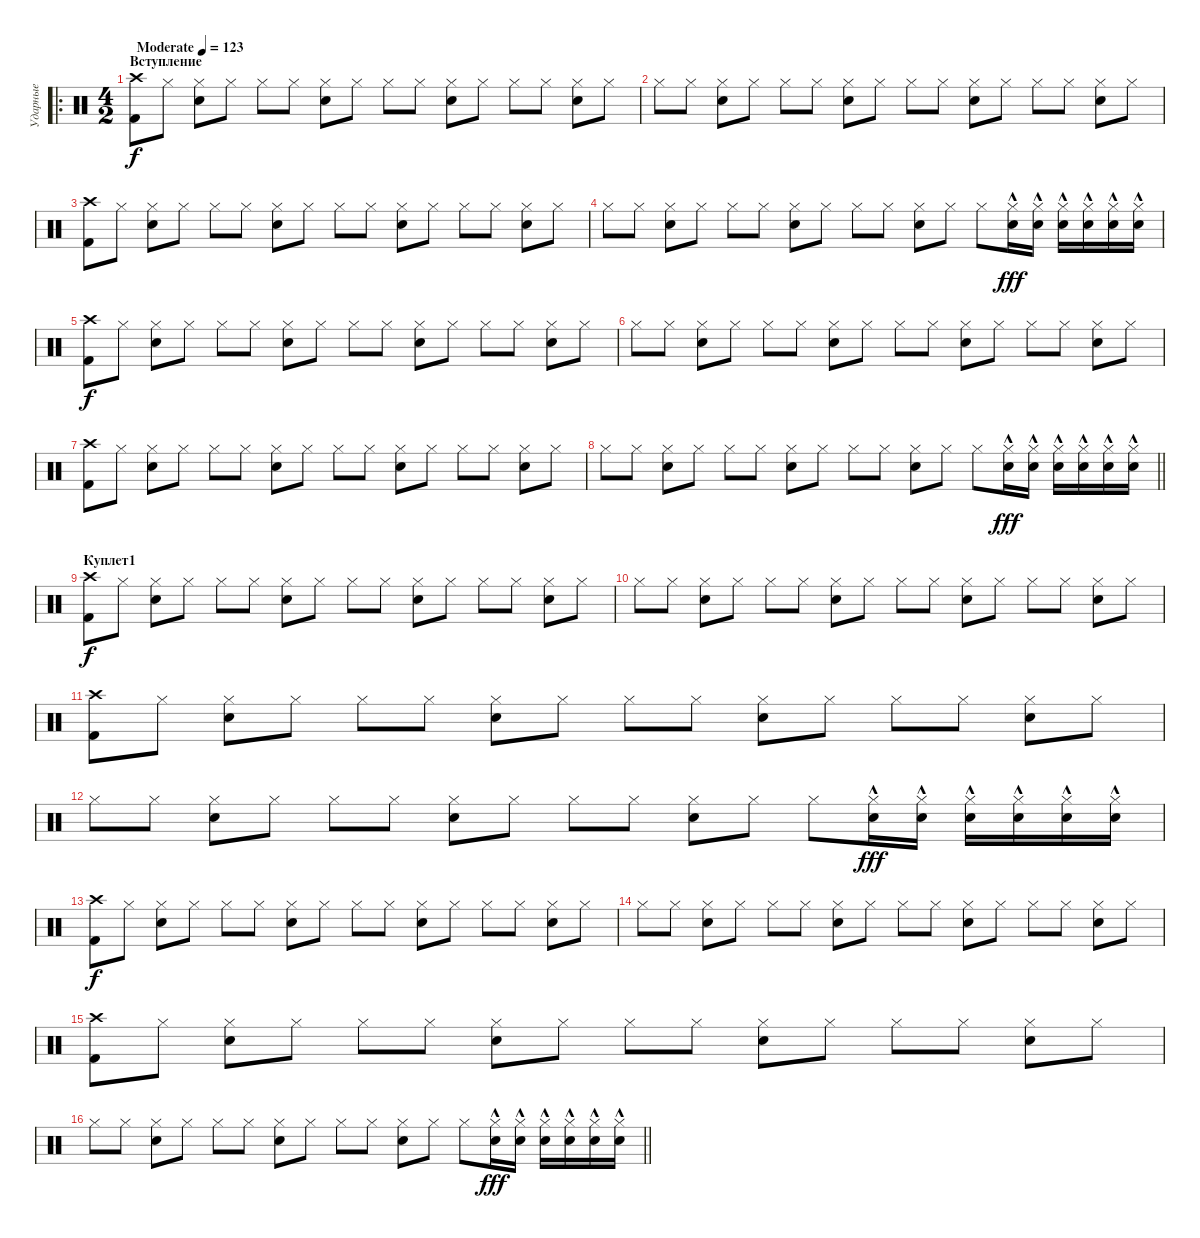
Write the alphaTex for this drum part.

\track ("Ударные" "Ударные") {instrument percussion}
\staff {score}
\articulation defaults
\ro
\ts (4 2)
\section ("" "Вступление")
\tempo (123 "Moderate")
\clef neutral
\ks c
("Crash high (hit)" "Kick (hit) 2").8{dy f} "Hi-Hat (closed)".8 ("Hi-Hat (closed)" "Electric Snare (hit)").8 "Hi-Hat (closed)".8 "Hi-Hat (closed)".8 "Hi-Hat (closed)".8 ("Hi-Hat (closed)" "Electric Snare (hit)").8 "Hi-Hat (closed)".8 "Hi-Hat (closed)".8 "Hi-Hat (closed)".8 ("Hi-Hat (closed)" "Electric Snare (hit)").8 "Hi-Hat (closed)".8 "Hi-Hat (closed)".8 "Hi-Hat (closed)".8 ("Hi-Hat (closed)" "Electric Snare (hit)").8 "Hi-Hat (closed)".8 |
"Hi-Hat (closed)".8 "Hi-Hat (closed)".8 ("Hi-Hat (closed)" "Electric Snare (hit)").8 "Hi-Hat (closed)".8 "Hi-Hat (closed)".8 "Hi-Hat (closed)".8 ("Hi-Hat (closed)" "Electric Snare (hit)").8 "Hi-Hat (closed)".8 "Hi-Hat (closed)".8 "Hi-Hat (closed)".8 ("Hi-Hat (closed)" "Electric Snare (hit)").8 "Hi-Hat (closed)".8 "Hi-Hat (closed)".8 "Hi-Hat (closed)".8 ("Hi-Hat (closed)" "Electric Snare (hit)").8 "Hi-Hat (closed)".8 |
("Crash high (hit)" "Kick (hit) 2").8 "Hi-Hat (closed)".8 ("Hi-Hat (closed)" "Electric Snare (hit)").8 "Hi-Hat (closed)".8 "Hi-Hat (closed)".8 "Hi-Hat (closed)".8 ("Hi-Hat (closed)" "Electric Snare (hit)").8 "Hi-Hat (closed)".8 "Hi-Hat (closed)".8 "Hi-Hat (closed)".8 ("Hi-Hat (closed)" "Electric Snare (hit)").8 "Hi-Hat (closed)".8 "Hi-Hat (closed)".8 "Hi-Hat (closed)".8 ("Hi-Hat (closed)" "Electric Snare (hit)").8 "Hi-Hat (closed)".8 |
"Hi-Hat (closed)".8 "Hi-Hat (closed)".8 ("Hi-Hat (closed)" "Electric Snare (hit)").8 "Hi-Hat (closed)".8 "Hi-Hat (closed)".8 "Hi-Hat (closed)".8 ("Hi-Hat (closed)" "Electric Snare (hit)").8 "Hi-Hat (closed)".8 "Hi-Hat (closed)".8 "Hi-Hat (closed)".8 ("Hi-Hat (closed)" "Electric Snare (hit)").8 "Hi-Hat (closed)".8 "Hi-Hat (closed)".8 ("Hi-Hat (closed)"{hac} "Electric Snare (hit)"{hac}).16{dy fff} ("Hi-Hat (closed)"{hac} "Electric Snare (hit)"{hac}).16 ("Hi-Hat (closed)"{hac} "Electric Snare (hit)"{hac}).16 ("Hi-Hat (closed)"{hac} "Electric Snare (hit)"{hac}).16 ("Hi-Hat (closed)"{hac} "Electric Snare (hit)"{hac}).16 ("Hi-Hat (closed)"{hac} "Electric Snare (hit)"{hac}).16 |
("Crash high (hit)" "Kick (hit) 2").8{dy f} "Hi-Hat (closed)".8 ("Hi-Hat (closed)" "Electric Snare (hit)").8 "Hi-Hat (closed)".8 "Hi-Hat (closed)".8 "Hi-Hat (closed)".8 ("Hi-Hat (closed)" "Electric Snare (hit)").8 "Hi-Hat (closed)".8 "Hi-Hat (closed)".8 "Hi-Hat (closed)".8 ("Hi-Hat (closed)" "Electric Snare (hit)").8 "Hi-Hat (closed)".8 "Hi-Hat (closed)".8 "Hi-Hat (closed)".8 ("Hi-Hat (closed)" "Electric Snare (hit)").8 "Hi-Hat (closed)".8 |
"Hi-Hat (closed)".8 "Hi-Hat (closed)".8 ("Hi-Hat (closed)" "Electric Snare (hit)").8 "Hi-Hat (closed)".8 "Hi-Hat (closed)".8 "Hi-Hat (closed)".8 ("Hi-Hat (closed)" "Electric Snare (hit)").8 "Hi-Hat (closed)".8 "Hi-Hat (closed)".8 "Hi-Hat (closed)".8 ("Hi-Hat (closed)" "Electric Snare (hit)").8 "Hi-Hat (closed)".8 "Hi-Hat (closed)".8 "Hi-Hat (closed)".8 ("Hi-Hat (closed)" "Electric Snare (hit)").8 "Hi-Hat (closed)".8 |
("Crash high (hit)" "Kick (hit) 2").8 "Hi-Hat (closed)".8 ("Hi-Hat (closed)" "Electric Snare (hit)").8 "Hi-Hat (closed)".8 "Hi-Hat (closed)".8 "Hi-Hat (closed)".8 ("Hi-Hat (closed)" "Electric Snare (hit)").8 "Hi-Hat (closed)".8 "Hi-Hat (closed)".8 "Hi-Hat (closed)".8 ("Hi-Hat (closed)" "Electric Snare (hit)").8 "Hi-Hat (closed)".8 "Hi-Hat (closed)".8 "Hi-Hat (closed)".8 ("Hi-Hat (closed)" "Electric Snare (hit)").8 "Hi-Hat (closed)".8 |
\barLineRight lightlight "Hi-Hat (closed)".8 "Hi-Hat (closed)".8
("Hi-Hat (closed)" "Electric Snare (hit)").8 "Hi-Hat (closed)".8 "Hi-Hat (closed)".8 "Hi-Hat (closed)".8 ("Hi-Hat (closed)" "Electric Snare (hit)").8 "Hi-Hat (closed)".8 "Hi-Hat (closed)".8 "Hi-Hat (closed)".8 ("Hi-Hat (closed)" "Electric Snare (hit)").8 "Hi-Hat (closed)".8 "Hi-Hat (closed)".8 ("Hi-Hat (closed)"{hac} "Electric Snare (hit)"{hac}).16{dy fff} ("Hi-Hat (closed)"{hac} "Electric Snare (hit)"{hac}).16 ("Hi-Hat (closed)"{hac} "Electric Snare (hit)"{hac}).16 ("Hi-Hat (closed)"{hac} "Electric Snare (hit)"{hac}).16 ("Hi-Hat (closed)"{hac} "Electric Snare (hit)"{hac}).16 ("Hi-Hat (closed)"{hac} "Electric Snare (hit)"{hac}).16 |
\section ("" "Куплет1")
("Crash high (hit)" "Kick (hit) 2").8{dy f} "Hi-Hat (closed)".8 ("Hi-Hat (closed)" "Electric Snare (hit)").8 "Hi-Hat (closed)".8 "Hi-Hat (closed)".8 "Hi-Hat (closed)".8 ("Hi-Hat (closed)" "Electric Snare (hit)").8 "Hi-Hat (closed)".8 "Hi-Hat (closed)".8 "Hi-Hat (closed)".8 ("Hi-Hat (closed)" "Electric Snare (hit)").8 "Hi-Hat (closed)".8 "Hi-Hat (closed)".8 "Hi-Hat (closed)".8 ("Hi-Hat (closed)" "Electric Snare (hit)").8 "Hi-Hat (closed)".8 |
"Hi-Hat (closed)".8 "Hi-Hat (closed)".8 ("Hi-Hat (closed)" "Electric Snare (hit)").8 "Hi-Hat (closed)".8 "Hi-Hat (closed)".8 "Hi-Hat (closed)".8 ("Hi-Hat (closed)" "Electric Snare (hit)").8 "Hi-Hat (closed)".8 "Hi-Hat (closed)".8 "Hi-Hat (closed)".8 ("Hi-Hat (closed)" "Electric Snare (hit)").8 "Hi-Hat (closed)".8 "Hi-Hat (closed)".8 "Hi-Hat (closed)".8 ("Hi-Hat (closed)" "Electric Snare (hit)").8 "Hi-Hat (closed)".8 |
("Crash high (hit)" "Kick (hit) 2").8 "Hi-Hat (closed)".8 ("Hi-Hat (closed)" "Electric Snare (hit)").8 "Hi-Hat (closed)".8 "Hi-Hat (closed)".8 "Hi-Hat (closed)".8 ("Hi-Hat (closed)" "Electric Snare (hit)").8 "Hi-Hat (closed)".8 "Hi-Hat (closed)".8 "Hi-Hat (closed)".8 ("Hi-Hat (closed)" "Electric Snare (hit)").8 "Hi-Hat (closed)".8 "Hi-Hat (closed)".8 "Hi-Hat (closed)".8 ("Hi-Hat (closed)" "Electric Snare (hit)").8 "Hi-Hat (closed)".8 |
"Hi-Hat (closed)".8 "Hi-Hat (closed)".8 ("Hi-Hat (closed)" "Electric Snare (hit)").8 "Hi-Hat (closed)".8 "Hi-Hat (closed)".8 "Hi-Hat (closed)".8 ("Hi-Hat (closed)" "Electric Snare (hit)").8 "Hi-Hat (closed)".8 "Hi-Hat (closed)".8 "Hi-Hat (closed)".8 ("Hi-Hat (closed)" "Electric Snare (hit)").8 "Hi-Hat (closed)".8 "Hi-Hat (closed)".8 ("Hi-Hat (closed)"{hac} "Electric Snare (hit)"{hac}).16{dy fff} ("Hi-Hat (closed)"{hac} "Electric Snare (hit)"{hac}).16 ("Hi-Hat (closed)"{hac} "Electric Snare (hit)"{hac}).16 ("Hi-Hat (closed)"{hac} "Electric Snare (hit)"{hac}).16 ("Hi-Hat (closed)"{hac} "Electric Snare (hit)"{hac}).16 ("Hi-Hat (closed)"{hac} "Electric Snare (hit)"{hac}).16 |
("Crash high (hit)" "Kick (hit) 2").8{dy f} "Hi-Hat (closed)".8 ("Hi-Hat (closed)" "Electric Snare (hit)").8 "Hi-Hat (closed)".8 "Hi-Hat (closed)".8 "Hi-Hat (closed)".8 ("Hi-Hat (closed)" "Electric Snare (hit)").8 "Hi-Hat (closed)".8 "Hi-Hat (closed)".8 "Hi-Hat (closed)".8 ("Hi-Hat (closed)" "Electric Snare (hit)").8 "Hi-Hat (closed)".8 "Hi-Hat (closed)".8 "Hi-Hat (closed)".8 ("Hi-Hat (closed)" "Electric Snare (hit)").8 "Hi-Hat (closed)".8 |
"Hi-Hat (closed)".8 "Hi-Hat (closed)".8 ("Hi-Hat (closed)" "Electric Snare (hit)").8 "Hi-Hat (closed)".8 "Hi-Hat (closed)".8 "Hi-Hat (closed)".8 ("Hi-Hat (closed)" "Electric Snare (hit)").8 "Hi-Hat (closed)".8 "Hi-Hat (closed)".8 "Hi-Hat (closed)".8 ("Hi-Hat (closed)" "Electric Snare (hit)").8 "Hi-Hat (closed)".8 "Hi-Hat (closed)".8 "Hi-Hat (closed)".8 ("Hi-Hat (closed)" "Electric Snare (hit)").8 "Hi-Hat (closed)".8 |
("Crash high (hit)" "Kick (hit) 2").8 "Hi-Hat (closed)".8 ("Hi-Hat (closed)" "Electric Snare (hit)").8 "Hi-Hat (closed)".8 "Hi-Hat (closed)".8 "Hi-Hat (closed)".8 ("Hi-Hat (closed)" "Electric Snare (hit)").8 "Hi-Hat (closed)".8 "Hi-Hat (closed)".8 "Hi-Hat (closed)".8 ("Hi-Hat (closed)" "Electric Snare (hit)").8 "Hi-Hat (closed)".8 "Hi-Hat (closed)".8 "Hi-Hat (closed)".8 ("Hi-Hat (closed)" "Electric Snare (hit)").8 "Hi-Hat (closed)".8 |
\barLineRight lightlight "Hi-Hat (closed)".8 "Hi-Hat (closed)".8
("Hi-Hat (closed)" "Electric Snare (hit)").8 "Hi-Hat (closed)".8 "Hi-Hat (closed)".8 "Hi-Hat (closed)".8 ("Hi-Hat (closed)" "Electric Snare (hit)").8 "Hi-Hat (closed)".8 "Hi-Hat (closed)".8 "Hi-Hat (closed)".8 ("Hi-Hat (closed)" "Electric Snare (hit)").8 "Hi-Hat (closed)".8 "Hi-Hat (closed)".8 ("Hi-Hat (closed)"{hac} "Electric Snare (hit)"{hac}).16{dy fff} ("Hi-Hat (closed)"{hac} "Electric Snare (hit)"{hac}).16 ("Hi-Hat (closed)"{hac} "Electric Snare (hit)"{hac}).16 ("Hi-Hat (closed)"{hac} "Electric Snare (hit)"{hac}).16 ("Hi-Hat (closed)"{hac} "Electric Snare (hit)"{hac}).16 ("Hi-Hat (closed)"{hac} "Electric Snare (hit)"{hac}).16
